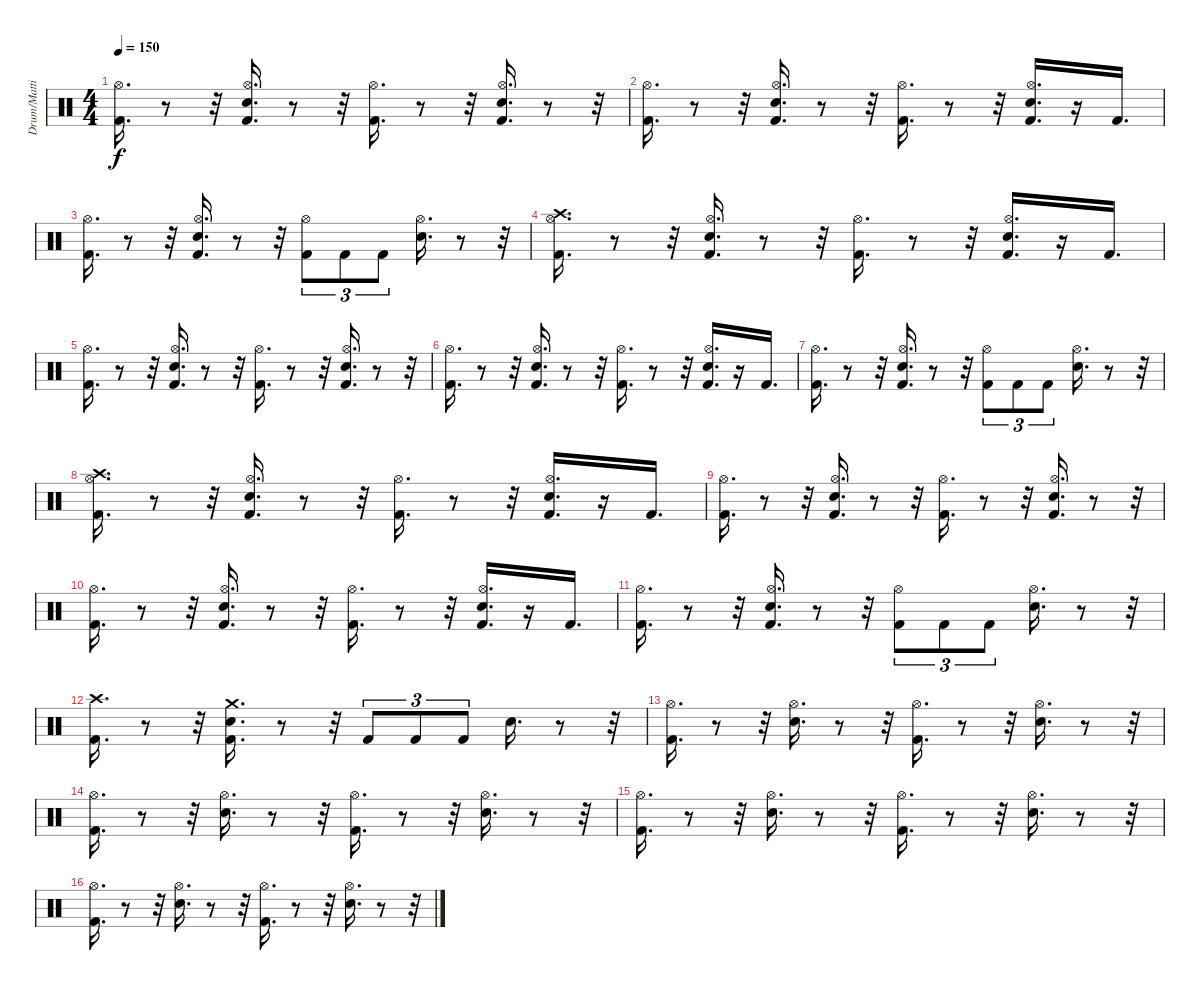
\track ("Drum/Matti" "Drum/Matti") {instrument percussion}
\staff {score}
\articulation defaults
\ts (4 4)
\tempo 150
\clef neutral
\ks c
("Kick (hit) 2" "Hi-Hat (open)").16{d dy f} r.8 r.32 ("Kick (hit) 2" "Hi-Hat (open)" "Electric Snare (hit)").16{d} r.8 r.32 ("Kick (hit) 2" "Hi-Hat (open)").16{d} r.8 r.32 ("Kick (hit) 2" "Hi-Hat (open)" "Electric Snare (hit)").16{d} r.8 r.32 |
("Kick (hit) 2" "Hi-Hat (open)").16{d} r.8 r.32 ("Kick (hit) 2" "Hi-Hat (open)" "Electric Snare (hit)").16{d} r.8 r.32 ("Kick (hit) 2" "Hi-Hat (open)").16{d} r.8 r.32 ("Kick (hit) 2" "Hi-Hat (open)" "Electric Snare (hit)").16{d} r.16 "Kick (hit) 2".16{d} |
("Kick (hit) 2" "Hi-Hat (open)").16{d} r.8 r.32 ("Kick (hit) 2" "Hi-Hat (open)" "Electric Snare (hit)").16{d} r.8 r.32 ("Kick (hit) 2" "Hi-Hat (open)").8{tu (3 2)} "Kick (hit) 2".8{tu (3 2)} "Kick (hit) 2".8{tu (3 2)} ("Hi-Hat (open)" "Electric Snare (hit)").16{d} r.8 r.32 |
("Kick (hit) 2" "Hi-Hat (open)" "Crash high (hit)").16{d} r.8 r.32 ("Kick (hit) 2" "Hi-Hat (open)" "Electric Snare (hit)").16{d} r.8 r.32 ("Kick (hit) 2" "Hi-Hat (open)").16{d} r.8 r.32 ("Kick (hit) 2" "Hi-Hat (open)" "Electric Snare (hit)").16{d} r.16 "Kick (hit) 2".16{d} |
("Kick (hit) 2" "Hi-Hat (open)").16{d} r.8 r.32 ("Kick (hit) 2" "Hi-Hat (open)" "Electric Snare (hit)").16{d} r.8 r.32 ("Kick (hit) 2" "Hi-Hat (open)").16{d} r.8 r.32 ("Kick (hit) 2" "Hi-Hat (open)" "Electric Snare (hit)").16{d} r.8 r.32 |
("Kick (hit) 2" "Hi-Hat (open)").16{d} r.8 r.32 ("Kick (hit) 2" "Hi-Hat (open)" "Electric Snare (hit)").16{d} r.8 r.32 ("Kick (hit) 2" "Hi-Hat (open)").16{d} r.8 r.32 ("Kick (hit) 2" "Hi-Hat (open)" "Electric Snare (hit)").16{d} r.16 "Kick (hit) 2".16{d} |
("Kick (hit) 2" "Hi-Hat (open)").16{d} r.8 r.32 ("Kick (hit) 2" "Hi-Hat (open)" "Electric Snare (hit)").16{d} r.8 r.32 ("Kick (hit) 2" "Hi-Hat (open)").8{tu (3 2)} "Kick (hit) 2".8{tu (3 2)} "Kick (hit) 2".8{tu (3 2)} ("Hi-Hat (open)" "Electric Snare (hit)").16{d} r.8 r.32 |
("Kick (hit) 2" "Hi-Hat (open)" "Crash high (hit)").16{d} r.8 r.32 ("Kick (hit) 2" "Hi-Hat (open)" "Electric Snare (hit)").16{d} r.8 r.32 ("Kick (hit) 2" "Hi-Hat (open)").16{d} r.8 r.32 ("Kick (hit) 2" "Hi-Hat (open)" "Electric Snare (hit)").16{d} r.16 "Kick (hit) 2".16{d} |
("Kick (hit) 2" "Hi-Hat (open)").16{d} r.8 r.32 ("Kick (hit) 2" "Hi-Hat (open)" "Electric Snare (hit)").16{d} r.8 r.32 ("Kick (hit) 2" "Hi-Hat (open)").16{d} r.8 r.32 ("Kick (hit) 2" "Hi-Hat (open)" "Electric Snare (hit)").16{d} r.8 r.32 |
("Kick (hit) 2" "Hi-Hat (open)").16{d} r.8 r.32 ("Kick (hit) 2" "Hi-Hat (open)" "Electric Snare (hit)").16{d} r.8 r.32 ("Kick (hit) 2" "Hi-Hat (open)").16{d} r.8 r.32 ("Kick (hit) 2" "Hi-Hat (open)" "Electric Snare (hit)").16{d} r.16 "Kick (hit) 2".16{d} |
("Kick (hit) 2" "Hi-Hat (open)").16{d} r.8 r.32 ("Kick (hit) 2" "Hi-Hat (open)" "Electric Snare (hit)").16{d} r.8 r.32 ("Kick (hit) 2" "Hi-Hat (open)").8{tu (3 2)} "Kick (hit) 2".8{tu (3 2)} "Kick (hit) 2".8{tu (3 2)} ("Hi-Hat (open)" "Electric Snare (hit)").16{d} r.8 r.32 |
("Kick (hit) 2" "Crash high (hit)").16{d} r.8 r.32 ("Kick (hit) 2" "Electric Snare (hit)" "Crash medium (hit)").16{d} r.8 r.32 "Kick (hit) 2".8{tu (3 2)} "Kick (hit) 2".8{tu (3 2)} "Kick (hit) 2".8{tu (3 2)} "Electric Snare (hit)".16{d} r.8 r.32 |
("Kick (hit) 2" "Hi-Hat (open)").16{d} r.8 r.32 ("Electric Snare (hit)" "Hi-Hat (open)").16{d} r.8 r.32 ("Kick (hit) 2" "Hi-Hat (open)").16{d} r.8 r.32 ("Electric Snare (hit)" "Hi-Hat (open)").16{d} r.8 r.32 |
("Kick (hit) 2" "Hi-Hat (open)").16{d} r.8 r.32 ("Electric Snare (hit)" "Hi-Hat (open)").16{d} r.8 r.32 ("Kick (hit) 2" "Hi-Hat (open)").16{d} r.8 r.32 ("Electric Snare (hit)" "Hi-Hat (open)").16{d} r.8 r.32 |
("Kick (hit) 2" "Hi-Hat (open)").16{d} r.8 r.32 ("Electric Snare (hit)" "Hi-Hat (open)").16{d} r.8 r.32 ("Kick (hit) 2" "Hi-Hat (open)").16{d} r.8 r.32 ("Electric Snare (hit)" "Hi-Hat (open)").16{d} r.8 r.32 |
("Kick (hit) 2" "Hi-Hat (open)").16{d} r.8 r.32 ("Electric Snare (hit)" "Hi-Hat (open)").16{d} r.8 r.32 ("Kick (hit) 2" "Hi-Hat (open)").16{d} r.8 r.32 ("Electric Snare (hit)" "Hi-Hat (open)").16{d} r.8 r.32
